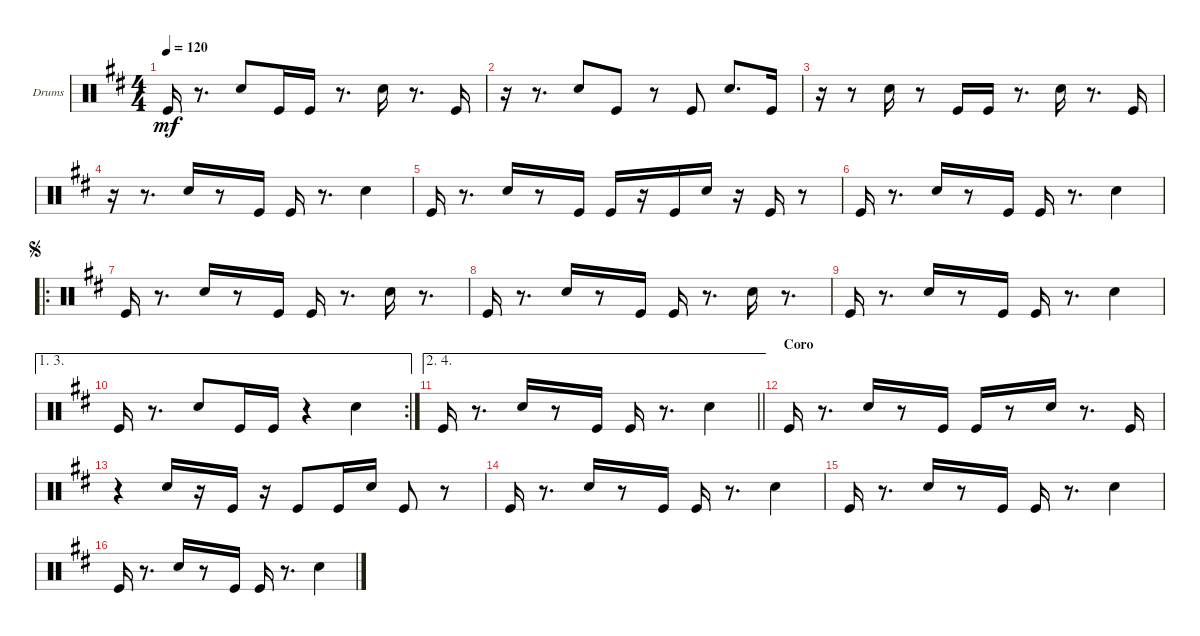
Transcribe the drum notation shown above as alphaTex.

\defaultSystemsLayout 4
\bracketExtendMode groupsimilarinstruments
\firstSystemTrackNameOrientation horizontal
\otherSystemsTrackNameOrientation horizontal
\track ("Drumkit" "Drums") {multiBarRest instrument percussion}
\staff {score}
\articulation defaults
\ts (4 4)
\tempo 120
\clef neutral
\scale
0.333333
\ks d "Kick (hit)".16{dy mf}
r.8{d} "Snare (hit) 2".8 "Kick (hit)".16 "Kick (hit)".16 r.8{d} "Snare (hit) 2".16 r.8{d} "Kick (hit)".16 |
\scale
0.333333 r.16 r.8{d} "Snare (hit) 2".8 "Kick (hit)".8 r.8 "Kick (hit)".8 "Snare (hit) 2".8{d} "Kick (hit)".16 |
\scale
0.333333 r.16 r.8 "Snare (hit) 2".16 r.8 "Kick (hit)".16 "Kick (hit)".16 r.8{d} "Snare (hit) 2".16 r.8{d} "Kick (hit)".16 |
\scale
0.333333 r.16 r.8{d} "Snare (hit) 2".16 r.8 "Kick (hit)".16 "Kick (hit)".16 r.8{d} "Snare (hit) 2".4 |
\scale
0.333333 "Kick (hit)".16 r.8{d} "Snare (hit) 2".16 r.8 "Kick (hit)".16 "Kick (hit)".16 r.16 "Kick (hit)".16 "Snare (hit) 2".16 r.16 "Kick (hit)".16 r.8 |
\scale
0.311475 "Kick (hit)".16 r.8{d} "Snare (hit) 2".16 r.8 "Kick (hit)".16 "Kick (hit)".16 r.8{d} "Snare (hit) 2".4 |
\ro
\jump segno
\scale
0.377049 "Kick (hit)".16 r.8{d} "Snare (hit) 2".16 r.8 "Kick (hit)".16 "Kick (hit)".16 r.8{d} "Snare (hit) 2".16 r.8{d} |
\scale
0.311475 "Kick (hit)".16 r.8{d} "Snare (hit) 2".16 r.8 "Kick (hit)".16 "Kick (hit)".16 r.8{d} "Snare (hit) 2".16 r.8{d} |
\scale
0.322034 "Kick (hit)".16 r.8{d} "Snare (hit) 2".16 r.8 "Kick (hit)".16 "Kick (hit)".16 r.8{d} "Snare (hit) 2".4 |
\ae (1 3)
\rc 2
\scale
0.355932 "Kick (hit)".16 r.8{d} "Snare (hit) 2".8 "Kick (hit)".16 "Kick (hit)".16 r.4 "Snare (hit) 2".4 |
\ae (2 4)
\scale
0.322034
\barLineRight lightlight "Kick (hit)".16
r.8{d} "Snare (hit) 2".16 r.8 "Kick (hit)".16 "Kick (hit)".16 r.8{d} "Snare (hit) 2".4 |
\section ("" "Coro")
\scale
0.333333 "Kick (hit)".16 r.8{d} "Snare (hit) 2".16 r.8 "Kick (hit)".16 "Kick (hit)".16 r.8 "Snare (hit) 2".16 r.8{d} "Kick (hit)".16 |
\scale
0.333333 r.4 "Snare (hit) 2".16 r.16 "Kick (hit)".16 r.16 "Kick (hit)".8 "Kick (hit)".16 "Snare (hit) 2".16 "Kick (hit)".8 r.8 |
\scale
0.333333 "Kick (hit)".16 r.8{d} "Snare (hit) 2".16 r.8 "Kick (hit)".16 "Kick (hit)".16 r.8{d} "Snare (hit) 2".4 |
\scale
0.333333 "Kick (hit)".16 r.8{d} "Snare (hit) 2".16 r.8 "Kick (hit)".16 "Kick (hit)".16 r.8{d} "Snare (hit) 2".4 |
\scale
0.333333 "Kick (hit)".16 r.8{d} "Snare (hit) 2".16 r.8 "Kick (hit)".16 "Kick (hit)".16 r.8{d} "Snare (hit) 2".4
